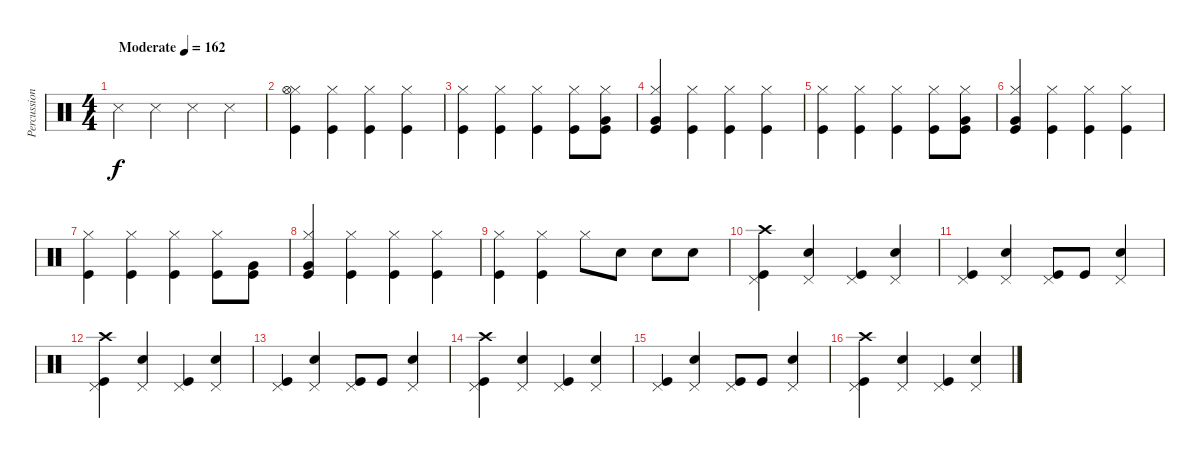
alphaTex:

\track ("Percussioni" "Percussion") {instrument percussion}
\staff {score}
\articulation defaults
\ts (4 4)
\tempo (162 "Moderate")
\clef neutral
\ks c "Snare (side stick) 3".4{dy f} "Snare (side stick) 3".4 "Snare (side stick) 3".4 "Snare (side stick) 3".4
|
("Kick (hit)" "Hi-Hat (closed)" "Hi-Hat (open)").4 ("Kick (hit)" "Hi-Hat (closed)").4 ("Kick (hit)" "Hi-Hat (closed)").4 ("Kick (hit)" "Hi-Hat (closed)").4 |
("Kick (hit)" "Hi-Hat (closed)").4 ("Kick (hit)" "Hi-Hat (closed)").4 ("Kick (hit)" "Hi-Hat (closed)").4 ("Kick (hit)" "Hi-Hat (closed)").8 ("Very Low Tom (hit)" "Kick (hit)" "Hi-Hat (closed)").8 |
("Very Low Tom (hit)" "Kick (hit)" "Hi-Hat (closed)").4 ("Kick (hit)" "Hi-Hat (closed)").4 ("Kick (hit)" "Hi-Hat (closed)").4 ("Kick (hit)" "Hi-Hat (closed)").4 |
("Kick (hit)" "Hi-Hat (closed)").4 ("Kick (hit)" "Hi-Hat (closed)").4 ("Kick (hit)" "Hi-Hat (closed)").4 ("Kick (hit)" "Hi-Hat (closed)").8 ("Very Low Tom (hit)" "Kick (hit)" "Hi-Hat (closed)").8 |
("Very Low Tom (hit)" "Kick (hit)" "Hi-Hat (closed)").4 ("Kick (hit)" "Hi-Hat (closed)").4 ("Kick (hit)" "Hi-Hat (closed)").4 ("Kick (hit)" "Hi-Hat (closed)").4 |
("Kick (hit)" "Hi-Hat (closed)").4 ("Kick (hit)" "Hi-Hat (closed)").4 ("Kick (hit)" "Hi-Hat (closed)").4 ("Kick (hit)" "Hi-Hat (closed)").8 ("Very Low Tom (hit)" "Kick (hit)").8 |
("Very Low Tom (hit)" "Kick (hit)" "Hi-Hat (closed)").4 ("Kick (hit)" "Hi-Hat (closed)").4 ("Kick (hit)" "Hi-Hat (closed)").4 ("Kick (hit)" "Hi-Hat (closed)").4 |
("Kick (hit)" "Hi-Hat (closed)").4 ("Kick (hit)" "Hi-Hat (closed)").4 "Hi-Hat (closed)".8 "Snare (hit) 2".8 "Snare (hit) 2".8 "Snare (hit) 2".8 |
("Pedal Hi-Hat (hit)" "Kick (hit)" "Crash high (hit)").4 ("Pedal Hi-Hat (hit)" "Snare (hit) 2").4 ("Pedal Hi-Hat (hit)" "Kick (hit)").4 ("Pedal Hi-Hat (hit)" "Snare (hit) 2").4 |
("Pedal Hi-Hat (hit)" "Kick (hit)").4 ("Pedal Hi-Hat (hit)" "Snare (hit) 2").4 ("Pedal Hi-Hat (hit)" "Kick (hit)").8 "Kick (hit)".8 ("Pedal Hi-Hat (hit)" "Snare (hit) 2").4 |
("Pedal Hi-Hat (hit)" "Kick (hit)" "Crash high (hit)").4 ("Pedal Hi-Hat (hit)" "Snare (hit) 2").4 ("Pedal Hi-Hat (hit)" "Kick (hit)").4 ("Pedal Hi-Hat (hit)" "Snare (hit) 2").4 |
("Pedal Hi-Hat (hit)" "Kick (hit)").4 ("Pedal Hi-Hat (hit)" "Snare (hit) 2").4 ("Pedal Hi-Hat (hit)" "Kick (hit)").8 "Kick (hit)".8 ("Pedal Hi-Hat (hit)" "Snare (hit) 2").4 |
("Pedal Hi-Hat (hit)" "Kick (hit)" "Crash high (hit)").4 ("Pedal Hi-Hat (hit)" "Snare (hit) 2").4 ("Pedal Hi-Hat (hit)" "Kick (hit)").4 ("Pedal Hi-Hat (hit)" "Snare (hit) 2").4 |
("Pedal Hi-Hat (hit)" "Kick (hit)").4 ("Pedal Hi-Hat (hit)" "Snare (hit) 2").4 ("Pedal Hi-Hat (hit)" "Kick (hit)").8 "Kick (hit)".8 ("Pedal Hi-Hat (hit)" "Snare (hit) 2").4 |
("Pedal Hi-Hat (hit)" "Kick (hit)" "Crash high (hit)").4 ("Pedal Hi-Hat (hit)" "Snare (hit) 2").4 ("Pedal Hi-Hat (hit)" "Kick (hit)").4 ("Pedal Hi-Hat (hit)" "Snare (hit) 2").4
